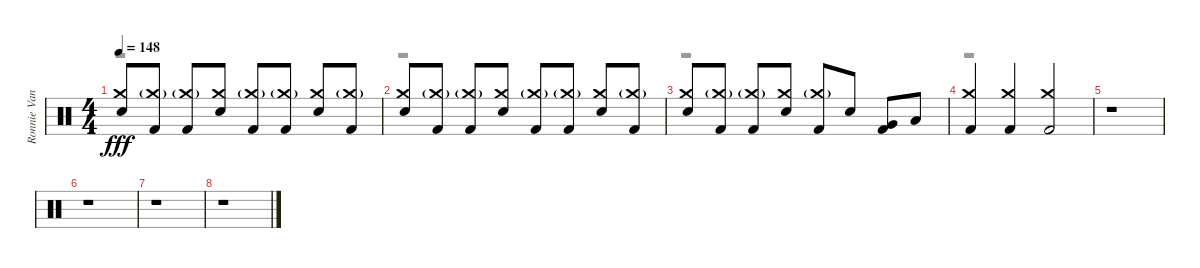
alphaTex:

\track ("Ronnie Vannucci Jr. - Drums" "Ronnie Van") {instrument percussion}
\staff {score}
\articulation defaults
\voice
\ts (4 4)
\tempo 148
\clef neutral
\ks c
("Crash medium (hit)" "Electric Snare (hit)").8{dy fff} ("Crash medium (hit)"{g} "Kick (hit) 2").8 ("Crash medium (hit)"{g} "Kick (hit) 2").8 ("Crash medium (hit)" "Electric Snare (hit)").8 ("Crash medium (hit)"{g} "Kick (hit) 2").8 ("Crash medium (hit)"{g} "Kick (hit) 2").8 ("Crash medium (hit)" "Electric Snare (hit)").8 ("Crash medium (hit)"{g} "Kick (hit) 2").8 |
("Crash medium (hit)" "Electric Snare (hit)").8 ("Crash medium (hit)"{g} "Kick (hit) 2").8 ("Crash medium (hit)"{g} "Kick (hit) 2").8 ("Crash medium (hit)" "Electric Snare (hit)").8 ("Crash medium (hit)"{g} "Kick (hit) 2").8 ("Crash medium (hit)"{g} "Kick (hit) 2").8 ("Crash medium (hit)" "Electric Snare (hit)").8 ("Crash medium (hit)"{g} "Kick (hit) 2").8 |
("Crash medium (hit)" "Electric Snare (hit)").8 ("Crash medium (hit)"{g} "Kick (hit) 2").8 ("Crash medium (hit)"{g} "Kick (hit) 2").8 ("Crash medium (hit)" "Electric Snare (hit)").8 ("Crash medium (hit)"{g} "Kick (hit) 2").8 "Electric Snare (hit)".8 ("Very Low Tom (hit)" "Kick (hit) 2").8 "Low Floor Tom (hit)".8 |
("Crash medium (hit)" "Kick (hit) 2").4 ("Crash medium (hit)" "Kick (hit) 2").4 ("Crash medium (hit)" "Kick (hit) 2").2 |
r.1 |
r.1 |
r.1 |
r.1
\voice
\clef neutral
\ottava regular
\simile none
\ks c
r.1{dy f} |
r.1 |
r.1 |
r.1 |
r.1 |
r.1 |
r.1 |
r.1
